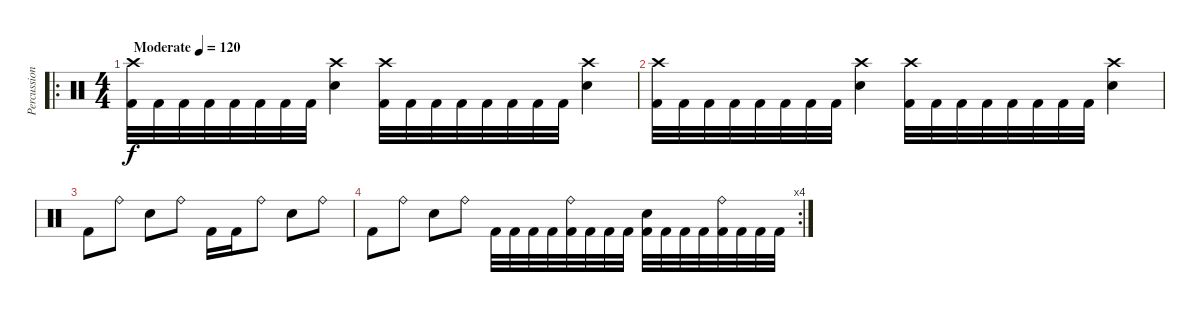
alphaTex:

\track ("Percussion" "Percussion") {instrument percussion}
\staff {score}
\articulation defaults
\ro
\ts (4 4)
\tempo (120 "Moderate")
\clef neutral
\ks c
("Crash high (hit)" "Kick (hit) 2").32{dy f} "Kick (hit) 2".32 "Kick (hit) 2".32 "Kick (hit) 2".32 "Kick (hit) 2".32 "Kick (hit) 2".32 "Kick (hit) 2".32 "Kick (hit) 2".32 ("Crash high (hit)" "Snare (hit) 2").4 ("Crash high (hit)" "Kick (hit) 2").32 "Kick (hit) 2".32 "Kick (hit) 2".32 "Kick (hit) 2".32 "Kick (hit) 2".32 "Kick (hit) 2".32 "Kick (hit) 2".32 "Kick (hit) 2".32 ("Crash high (hit)" "Snare (hit) 2").4 |
("Crash high (hit)" "Kick (hit) 2").32 "Kick (hit) 2".32 "Kick (hit) 2".32 "Kick (hit) 2".32 "Kick (hit) 2".32 "Kick (hit) 2".32 "Kick (hit) 2".32 "Kick (hit) 2".32 ("Crash high (hit)" "Snare (hit) 2").4 ("Crash high (hit)" "Kick (hit) 2").32 "Kick (hit) 2".32 "Kick (hit) 2".32 "Kick (hit) 2".32 "Kick (hit) 2".32 "Kick (hit) 2".32 "Kick (hit) 2".32 "Kick (hit) 2".32 ("Crash high (hit)" "Snare (hit) 2").4 |
"Kick (hit) 2".8 "Ride (bell)".8 "Snare (hit) 2".8 "Ride (bell)".8 "Kick (hit) 2".16 "Kick (hit) 2".16 "Ride (bell)".8 "Snare (hit) 2".8 "Ride (bell)".8 |
\rc 4 "Kick (hit) 2".8 "Ride (bell)".8 "Snare (hit) 2".8 "Ride (bell)".8 "Kick (hit) 2".32 "Kick (hit) 2".32 "Kick (hit) 2".32 "Kick (hit) 2".32
("Ride (bell)" "Kick (hit) 2").32 "Kick (hit) 2".32 "Kick (hit) 2".32 "Kick (hit) 2".32 ("Snare (hit) 2" "Kick (hit) 2").32 "Kick (hit) 2".32 "Kick (hit) 2".32 "Kick (hit) 2".32 ("Ride (bell)" "Kick (hit) 2").32 "Kick (hit) 2".32 "Kick (hit) 2".32 "Kick (hit) 2".32
